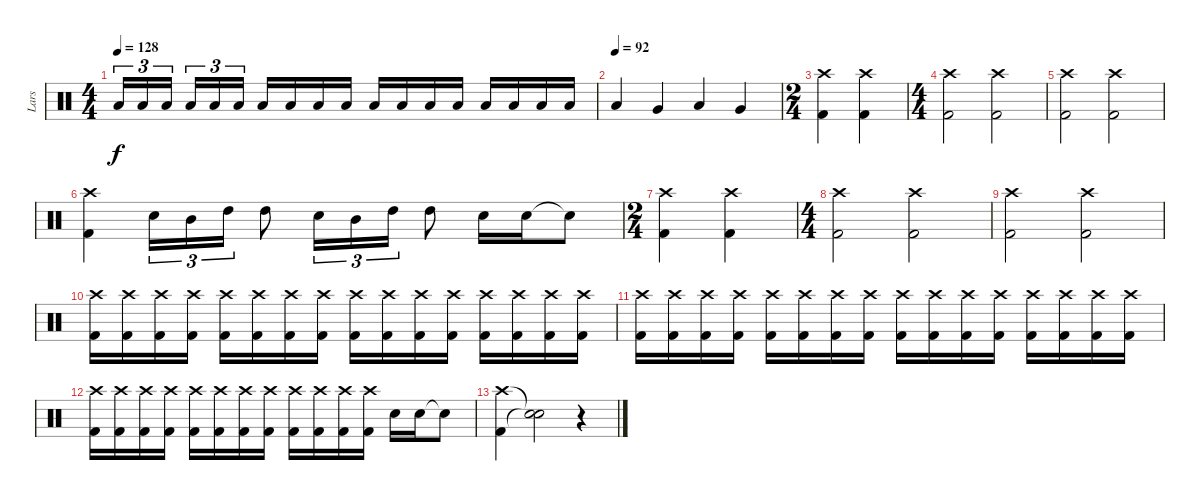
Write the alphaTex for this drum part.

\track ("Lars" "Lars") {instrument percussion}
\staff {score}
\articulation defaults
\ts (4 4)
\tempo 128
\clef neutral
\ks c "Low Floor Tom (hit)".16{tu (3 2) dy f} "Low Floor Tom (hit)".16{tu (3 2)} "Low Floor Tom (hit)".16{tu (3 2)} "Low Floor Tom (hit)".16{tu (3 2)} "Low Floor Tom (hit)".16{tu (3 2)} "Low Floor Tom (hit)".16{tu (3 2)} "Low Floor Tom (hit)".16 "Low Floor Tom (hit)".16 "Low Floor Tom (hit)".16 "Low Floor Tom (hit)".16 "Low Floor Tom (hit)".16 "Low Floor Tom (hit)".16 "Low Floor Tom (hit)".16 "Low Floor Tom (hit)".16 "Low Floor Tom (hit)".16 "Low Floor Tom (hit)".16 "Low Floor Tom (hit)".16 "Low Floor Tom (hit)".16
|
\tempo (92)
"Low Tom (hit)".4 "Very Low Tom (hit)".4 "Low Tom (hit)".4 "Very Low Tom (hit)".4 |
\ts (2 4)
("Crash high (hit)" "Kick (hit) 2").4 ("Crash high (hit)" "Kick (hit) 2").4 |
\ts (4 4)
("Crash high (hit)" "Kick (hit) 2").2 ("Crash high (hit)" "Kick (hit) 2").2 |
("Crash high (hit)" "Kick (hit) 2").2 ("Crash high (hit)" "Kick (hit) 2").2 |
("Crash high (hit)" "Kick (hit) 2").4 "Electric Snare (hit)".16{tu (3 2)} "Mid Tom (hit)".16{tu (3 2)} "High Tom (hit)".16{tu (3 2)} "High Tom (hit)".8 "Electric Snare (hit)".16{tu (3 2)} "Mid Tom (hit)".16{tu (3 2)} "High Tom (hit)".16{tu (3 2)} "High Tom (hit)".8 "Electric Snare (hit)".16 "Electric Snare (hit)".16 "Snare (hit)"{t}.8 |
\ts (2 4)
("Crash high (hit)" "Kick (hit) 2").4 ("Crash high (hit)" "Kick (hit) 2").4 |
\ts (4 4)
("Crash high (hit)" "Kick (hit) 2").2 ("Crash high (hit)" "Kick (hit) 2").2 |
("Crash high (hit)" "Kick (hit) 2").2 ("Crash high (hit)" "Kick (hit) 2").2 |
("Crash high (hit)" "Kick (hit) 2").16 ("Crash high (hit)" "Kick (hit) 2").16 ("Crash high (hit)" "Kick (hit) 2").16 ("Crash high (hit)" "Kick (hit) 2").16 ("Crash high (hit)" "Kick (hit) 2").16 ("Crash high (hit)" "Kick (hit) 2").16 ("Crash high (hit)" "Kick (hit) 2").16 ("Crash high (hit)" "Kick (hit) 2").16 ("Crash high (hit)" "Kick (hit) 2").16 ("Crash high (hit)" "Kick (hit) 2").16 ("Crash high (hit)" "Kick (hit) 2").16 ("Crash high (hit)" "Kick (hit) 2").16 ("Crash high (hit)" "Kick (hit) 2").16 ("Crash high (hit)" "Kick (hit) 2").16 ("Crash high (hit)" "Kick (hit) 2").16 ("Crash high (hit)" "Kick (hit) 2").16 |
("Crash high (hit)" "Kick (hit) 2").16 ("Crash high (hit)" "Kick (hit) 2").16 ("Crash high (hit)" "Kick (hit) 2").16 ("Crash high (hit)" "Kick (hit) 2").16 ("Crash high (hit)" "Kick (hit) 2").16 ("Crash high (hit)" "Kick (hit) 2").16 ("Crash high (hit)" "Kick (hit) 2").16 ("Crash high (hit)" "Kick (hit) 2").16 ("Crash high (hit)" "Kick (hit) 2").16 ("Crash high (hit)" "Kick (hit) 2").16 ("Crash high (hit)" "Kick (hit) 2").16 ("Crash high (hit)" "Kick (hit) 2").16 ("Crash high (hit)" "Kick (hit) 2").16 ("Crash high (hit)" "Kick (hit) 2").16 ("Crash high (hit)" "Kick (hit) 2").16 ("Crash high (hit)" "Kick (hit) 2").16 |
("Crash high (hit)" "Kick (hit) 2").16 ("Crash high (hit)" "Kick (hit) 2").16 ("Crash high (hit)" "Kick (hit) 2").16 ("Crash high (hit)" "Kick (hit) 2").16 ("Crash high (hit)" "Kick (hit) 2").16 ("Crash high (hit)" "Kick (hit) 2").16 ("Crash high (hit)" "Kick (hit) 2").16 ("Crash high (hit)" "Kick (hit) 2").16 ("Crash high (hit)" "Kick (hit) 2").16 ("Crash high (hit)" "Kick (hit) 2").16 ("Crash high (hit)" "Kick (hit) 2").16 ("Crash high (hit)" "Kick (hit) 2").16 "Electric Snare (hit)".16 "Electric Snare (hit)".16 "Snare (hit)"{t}.8 |
("Crash high (hit)" "Kick (hit) 2").4 ("Snare (hit)"{t} "Snare (hit)"{t}).2 r.4
